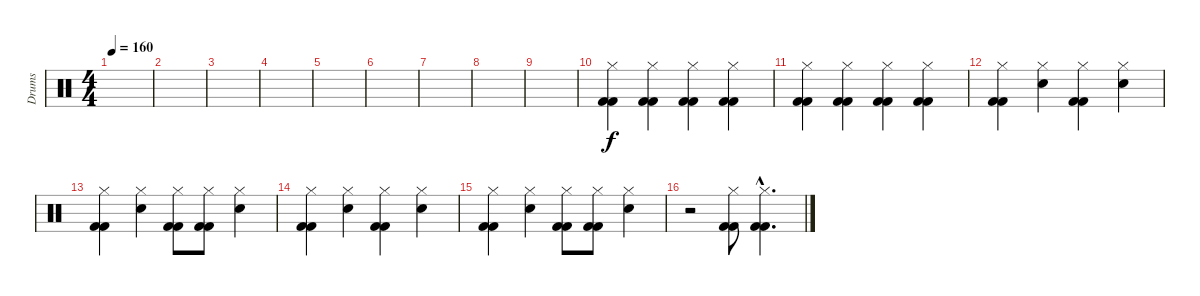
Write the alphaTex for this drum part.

\track ("Drums" "Drums") {instrument percussion}
\staff {score}
\articulation defaults
\ts (4 4)
\tempo 160
\clef neutral
\ks c
|
|
|
|
|
|
|
|
|
("Hi-Hat (closed)" "Kick (hit) 2" "Kick (hit) 2").4 ("Hi-Hat (closed)" "Kick (hit) 2" "Kick (hit) 2").4 ("Hi-Hat (closed)" "Kick (hit) 2" "Kick (hit) 2").4 ("Hi-Hat (closed)" "Kick (hit) 2" "Kick (hit) 2").4 |
("Hi-Hat (closed)" "Kick (hit) 2" "Kick (hit) 2").4 ("Hi-Hat (closed)" "Kick (hit) 2" "Kick (hit) 2").4 ("Hi-Hat (closed)" "Kick (hit) 2" "Kick (hit) 2").4 ("Hi-Hat (closed)" "Kick (hit) 2" "Kick (hit) 2").4 |
("Hi-Hat (closed)" "Kick (hit) 2" "Kick (hit) 2").4 ("Hi-Hat (closed)" "Snare (hit) 2").4 ("Hi-Hat (closed)" "Kick (hit) 2" "Kick (hit) 2").4 ("Hi-Hat (closed)" "Snare (hit) 2").4 |
("Hi-Hat (closed)" "Kick (hit) 2" "Kick (hit) 2").4 ("Hi-Hat (closed)" "Snare (hit) 2").4 ("Hi-Hat (closed)" "Kick (hit) 2" "Kick (hit) 2").8 ("Hi-Hat (closed)" "Kick (hit) 2" "Kick (hit) 2").8 ("Hi-Hat (closed)" "Snare (hit) 2").4 |
("Hi-Hat (closed)" "Kick (hit) 2" "Kick (hit) 2").4 ("Hi-Hat (closed)" "Snare (hit) 2").4 ("Hi-Hat (closed)" "Kick (hit) 2" "Kick (hit) 2").4 ("Hi-Hat (closed)" "Snare (hit) 2").4 |
("Hi-Hat (closed)" "Kick (hit) 2" "Kick (hit) 2").4 ("Hi-Hat (closed)" "Snare (hit) 2").4 ("Hi-Hat (closed)" "Kick (hit) 2" "Kick (hit) 2").8 ("Hi-Hat (closed)" "Kick (hit) 2" "Kick (hit) 2").8 ("Hi-Hat (closed)" "Snare (hit) 2").4 |
r.2 ("Hi-Hat (closed)" "Kick (hit) 2" "Kick (hit) 2").8 ("Hi-Hat (closed)"{hac} "Kick (hit) 2"{hac} "Kick (hit) 2"{hac}).4{d}
